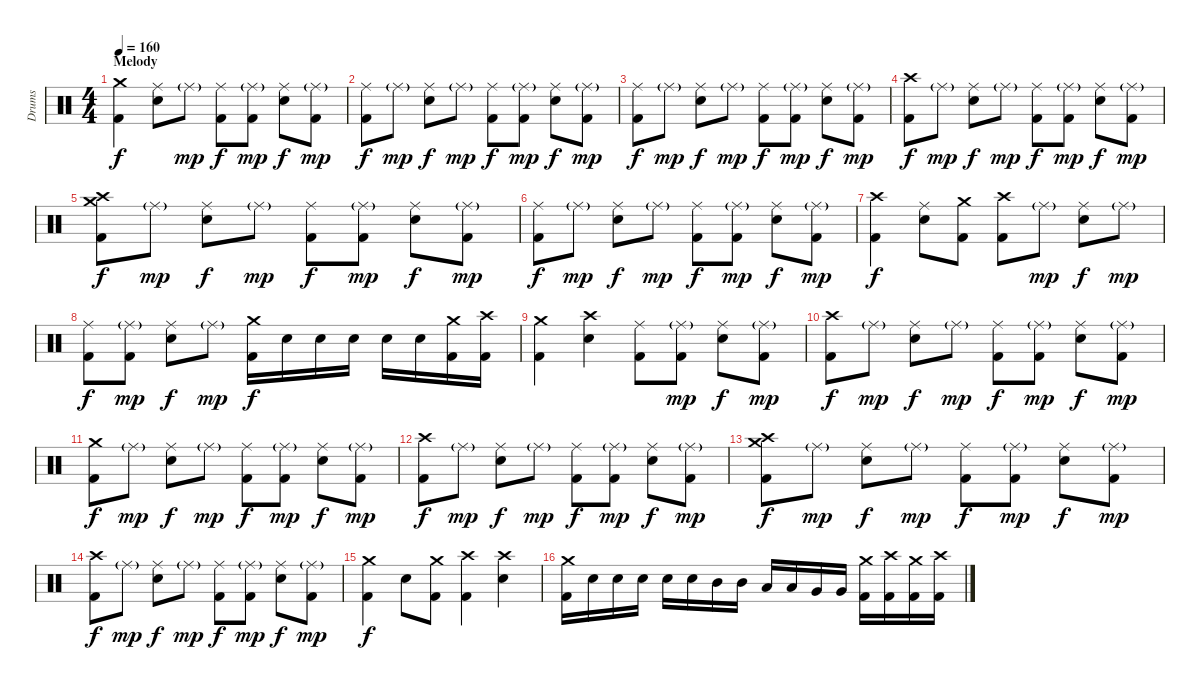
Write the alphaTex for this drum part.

\track ("Drums" "Drums") {instrument percussion}
\staff {score}
\articulation defaults
\ts (4 4)
\section ("" "Melody")
\tempo 160
\clef neutral
\ks c
("Crash medium (hit)" "Kick (hit) 2").4{dy f} ("Ride (middle)" "Snare (hit) 2").8 "Ride (middle)"{g}.8{dy mp} ("Ride (middle)" "Kick (hit) 2").8{dy f} ("Ride (middle)"{g} "Kick (hit) 2").8{dy mp} ("Ride (middle)" "Snare (hit) 2").8{dy f} ("Ride (middle)"{g} "Kick (hit) 2").8{dy mp} |
("Ride (middle)" "Kick (hit) 2").8{dy f} "Ride (middle)"{g}.8{dy mp} ("Ride (middle)" "Snare (hit) 2").8{dy f} "Ride (middle)"{g}.8{dy mp} ("Ride (middle)" "Kick (hit) 2").8{dy f} ("Ride (middle)"{g} "Kick (hit) 2").8{dy mp} ("Ride (middle)" "Snare (hit) 2").8{dy f} ("Ride (middle)"{g} "Kick (hit) 2").8{dy mp} |
("Ride (middle)" "Kick (hit) 2").8{dy f} "Ride (middle)"{g}.8{dy mp} ("Ride (middle)" "Snare (hit) 2").8{dy f} "Ride (middle)"{g}.8{dy mp} ("Ride (middle)" "Kick (hit) 2").8{dy f} ("Ride (middle)"{g} "Kick (hit) 2").8{dy mp} ("Ride (middle)" "Snare (hit) 2").8{dy f} ("Ride (middle)"{g} "Kick (hit) 2").8{dy mp} |
("Crash high (hit)" "Kick (hit) 2").8{dy f} "Ride (middle)"{g}.8{dy mp} ("Ride (middle)" "Snare (hit) 2").8{dy f} "Ride (middle)"{g}.8{dy mp} ("Ride (middle)" "Kick (hit) 2").8{dy f} ("Ride (middle)"{g} "Kick (hit) 2").8{dy mp} ("Ride (middle)" "Snare (hit) 2").8{dy f} ("Ride (middle)"{g} "Kick (hit) 2").8{dy mp} |
("Crash medium (hit)" "Crash high (hit)" "Kick (hit) 2").8{dy f} "Ride (middle)"{g}.8{dy mp} ("Ride (middle)" "Snare (hit) 2").8{dy f} "Ride (middle)"{g}.8{dy mp} ("Ride (middle)" "Kick (hit) 2").8{dy f} ("Ride (middle)"{g} "Kick (hit) 2").8{dy mp} ("Ride (middle)" "Snare (hit) 2").8{dy f} ("Ride (middle)"{g} "Kick (hit) 2").8{dy mp} |
("Ride (middle)" "Kick (hit) 2").8{dy f} "Ride (middle)"{g}.8{dy mp} ("Ride (middle)" "Snare (hit) 2").8{dy f} "Ride (middle)"{g}.8{dy mp} ("Ride (middle)" "Kick (hit) 2").8{dy f} ("Ride (middle)"{g} "Kick (hit) 2").8{dy mp} ("Ride (middle)" "Snare (hit) 2").8{dy f} ("Ride (middle)"{g} "Kick (hit) 2").8{dy mp} |
("Crash high (hit)" "Kick (hit) 2").4{dy f} ("Ride (middle)" "Snare (hit) 2").8 ("Crash medium (hit)" "Kick (hit) 2").8 ("Crash high (hit)" "Kick (hit) 2").8 "Ride (middle)"{g}.8{dy mp} ("Ride (middle)" "Snare (hit) 2").8{dy f} "Ride (middle)"{g}.8{dy mp} |
("Ride (middle)" "Kick (hit) 2").8{dy f} ("Ride (middle)"{g} "Kick (hit) 2").8{dy mp} ("Ride (middle)" "Snare (hit) 2").8{dy f} "Ride (middle)"{g}.8{dy mp} ("Crash medium (hit)" "Kick (hit) 2").16{dy f} "Snare (hit) 2".16 "Snare (hit) 2".16 "Snare (hit) 2".16 "Snare (hit) 2".16 "Snare (hit) 2".16 ("Crash medium (hit)" "Kick (hit) 2").16 ("Crash high (hit)" "Kick (hit) 2").16 |
("Crash medium (hit)" "Kick (hit) 2").4 ("Crash high (hit)" "Snare (hit) 2").4 ("Ride (middle)" "Kick (hit) 2").8 ("Ride (middle)"{g} "Kick (hit) 2").8{dy mp} ("Ride (middle)" "Snare (hit) 2").8{dy f} ("Ride (middle)"{g} "Kick (hit) 2").8{dy mp} |
("Crash high (hit)" "Kick (hit) 2").8{dy f} "Ride (middle)"{g}.8{dy mp} ("Ride (middle)" "Snare (hit) 2").8{dy f} "Ride (middle)"{g}.8{dy mp} ("Ride (middle)" "Kick (hit) 2").8{dy f} ("Ride (middle)"{g} "Kick (hit) 2").8{dy mp} ("Ride (middle)" "Snare (hit) 2").8{dy f} ("Ride (middle)"{g} "Kick (hit) 2").8{dy mp} |
("Crash medium (hit)" "Kick (hit) 2").8{dy f} "Ride (middle)"{g}.8{dy mp} ("Ride (middle)" "Snare (hit) 2").8{dy f} "Ride (middle)"{g}.8{dy mp} ("Ride (middle)" "Kick (hit) 2").8{dy f} ("Ride (middle)"{g} "Kick (hit) 2").8{dy mp} ("Ride (middle)" "Snare (hit) 2").8{dy f} ("Ride (middle)"{g} "Kick (hit) 2").8{dy mp} |
("Crash high (hit)" "Kick (hit) 2").8{dy f} "Ride (middle)"{g}.8{dy mp} ("Ride (middle)" "Snare (hit) 2").8{dy f} "Ride (middle)"{g}.8{dy mp} ("Ride (middle)" "Kick (hit) 2").8{dy f} ("Ride (middle)"{g} "Kick (hit) 2").8{dy mp} ("Ride (middle)" "Snare (hit) 2").8{dy f} ("Ride (middle)"{g} "Kick (hit) 2").8{dy mp} |
("Crash medium (hit)" "Crash high (hit)" "Kick (hit) 2").8{dy f} "Ride (middle)"{g}.8{dy mp} ("Ride (middle)" "Snare (hit) 2").8{dy f} "Ride (middle)"{g}.8{dy mp} ("Ride (middle)" "Kick (hit) 2").8{dy f} ("Ride (middle)"{g} "Kick (hit) 2").8{dy mp} ("Ride (middle)" "Snare (hit) 2").8{dy f} ("Ride (middle)"{g} "Kick (hit) 2").8{dy mp} |
("Crash high (hit)" "Kick (hit) 2").8{dy f} "Ride (middle)"{g}.8{dy mp} ("Ride (middle)" "Snare (hit) 2").8{dy f} "Ride (middle)"{g}.8{dy mp} ("Ride (middle)" "Kick (hit) 2").8{dy f} ("Ride (middle)"{g} "Kick (hit) 2").8{dy mp} ("Ride (middle)" "Snare (hit) 2").8{dy f} ("Ride (middle)"{g} "Kick (hit) 2").8{dy mp} |
("Crash medium (hit)" "Kick (hit) 2").4{dy f} "Snare (hit) 2".8 ("Crash medium (hit)" "Kick (hit) 2").8 ("Crash high (hit)" "Kick (hit) 2").4 ("Crash high (hit)" "Snare (hit) 2").4 |
("Crash medium (hit)" "Kick (hit) 2").16 "Snare (hit) 2".16 "Snare (hit) 2".16 "Snare (hit) 2".16 "Snare (hit) 2".16 "Snare (hit) 2".16 "Mid Tom (hit)".16 "Mid Tom (hit)".16 "Low Tom (hit)".16 "Low Tom (hit)".16 "Very Low Tom (hit)".16 "Very Low Tom (hit)".16 ("Crash medium (hit)" "Kick (hit) 2").16 ("Crash high (hit)" "Kick (hit) 2").16 ("Crash medium (hit)" "Kick (hit) 2").16 ("Crash high (hit)" "Kick (hit) 2").16
